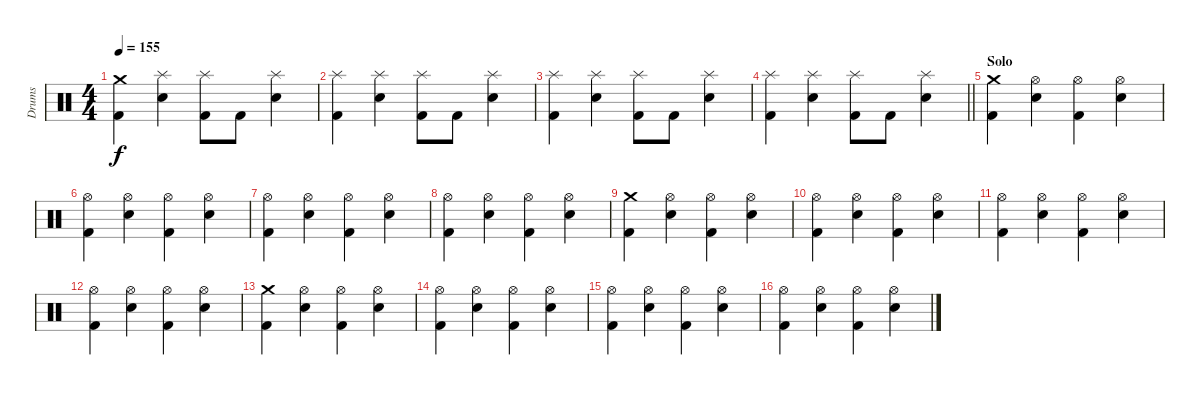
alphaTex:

\track ("Drums" "Drums") {instrument percussion}
\staff {score}
\articulation defaults
\ts (4 4)
\tempo 155
\clef neutral
\ks c
("Kick (hit) 2" "Crash medium (hit)").4{dy f} ("Splash (hit)" "Electric Snare (hit)").4 ("Kick (hit) 2" "Splash (hit)").8 "Kick (hit) 2".8 ("Splash (hit)" "Electric Snare (hit)").4 |
("Kick (hit) 2" "Splash (hit)").4 ("Splash (hit)" "Electric Snare (hit)").4 ("Kick (hit) 2" "Splash (hit)").8 "Kick (hit) 2".8 ("Splash (hit)" "Electric Snare (hit)").4 |
("Kick (hit) 2" "Splash (hit)").4 ("Electric Snare (hit)" "Splash (hit)").4 ("Kick (hit) 2" "Splash (hit)").8 "Kick (hit) 2".8 ("Electric Snare (hit)" "Splash (hit)").4 |
\barLineRight lightlight
("Kick (hit) 2" "Splash (hit)").4 ("Electric Snare (hit)" "Splash (hit)").4 ("Kick (hit) 2" "Splash (hit)").8 "Kick (hit) 2".8 ("Electric Snare (hit)" "Splash (hit)").4 |
\section ("" "Solo")
("Crash medium (hit)" "Kick (hit) 2").4 ("Hi-Hat (open)" "Electric Snare (hit)").4 ("Hi-Hat (open)" "Kick (hit) 2").4 ("Hi-Hat (open)" "Electric Snare (hit)").4 |
("Hi-Hat (open)" "Kick (hit) 2").4 ("Hi-Hat (open)" "Electric Snare (hit)").4 ("Hi-Hat (open)" "Kick (hit) 2").4 ("Hi-Hat (open)" "Electric Snare (hit)").4 |
("Kick (hit) 2" "Hi-Hat (open)").4 ("Electric Snare (hit)" "Hi-Hat (open)").4 ("Kick (hit) 2" "Hi-Hat (open)").4 ("Electric Snare (hit)" "Hi-Hat (open)").4 |
("Kick (hit) 2" "Hi-Hat (open)").4 ("Electric Snare (hit)" "Hi-Hat (open)").4 ("Kick (hit) 2" "Hi-Hat (open)").4 ("Electric Snare (hit)" "Hi-Hat (open)").4 |
("Crash medium (hit)" "Kick (hit) 2").4 ("Hi-Hat (open)" "Electric Snare (hit)").4 ("Hi-Hat (open)" "Kick (hit) 2").4 ("Hi-Hat (open)" "Electric Snare (hit)").4 |
("Hi-Hat (open)" "Kick (hit) 2").4 ("Hi-Hat (open)" "Electric Snare (hit)").4 ("Hi-Hat (open)" "Kick (hit) 2").4 ("Hi-Hat (open)" "Electric Snare (hit)").4 |
("Kick (hit) 2" "Hi-Hat (open)").4 ("Electric Snare (hit)" "Hi-Hat (open)").4 ("Kick (hit) 2" "Hi-Hat (open)").4 ("Electric Snare (hit)" "Hi-Hat (open)").4 |
("Kick (hit) 2" "Hi-Hat (open)").4 ("Electric Snare (hit)" "Hi-Hat (open)").4 ("Kick (hit) 2" "Hi-Hat (open)").4 ("Electric Snare (hit)" "Hi-Hat (open)").4 |
("Crash medium (hit)" "Kick (hit) 2").4 ("Hi-Hat (open)" "Electric Snare (hit)").4 ("Hi-Hat (open)" "Kick (hit) 2").4 ("Hi-Hat (open)" "Electric Snare (hit)").4 |
("Hi-Hat (open)" "Kick (hit) 2").4 ("Hi-Hat (open)" "Electric Snare (hit)").4 ("Hi-Hat (open)" "Kick (hit) 2").4 ("Hi-Hat (open)" "Electric Snare (hit)").4 |
("Kick (hit) 2" "Hi-Hat (open)").4 ("Electric Snare (hit)" "Hi-Hat (open)").4 ("Kick (hit) 2" "Hi-Hat (open)").4 ("Electric Snare (hit)" "Hi-Hat (open)").4 |
("Kick (hit) 2" "Hi-Hat (open)").4 ("Electric Snare (hit)" "Hi-Hat (open)").4 ("Kick (hit) 2" "Hi-Hat (open)").4 ("Electric Snare (hit)" "Hi-Hat (open)").4
